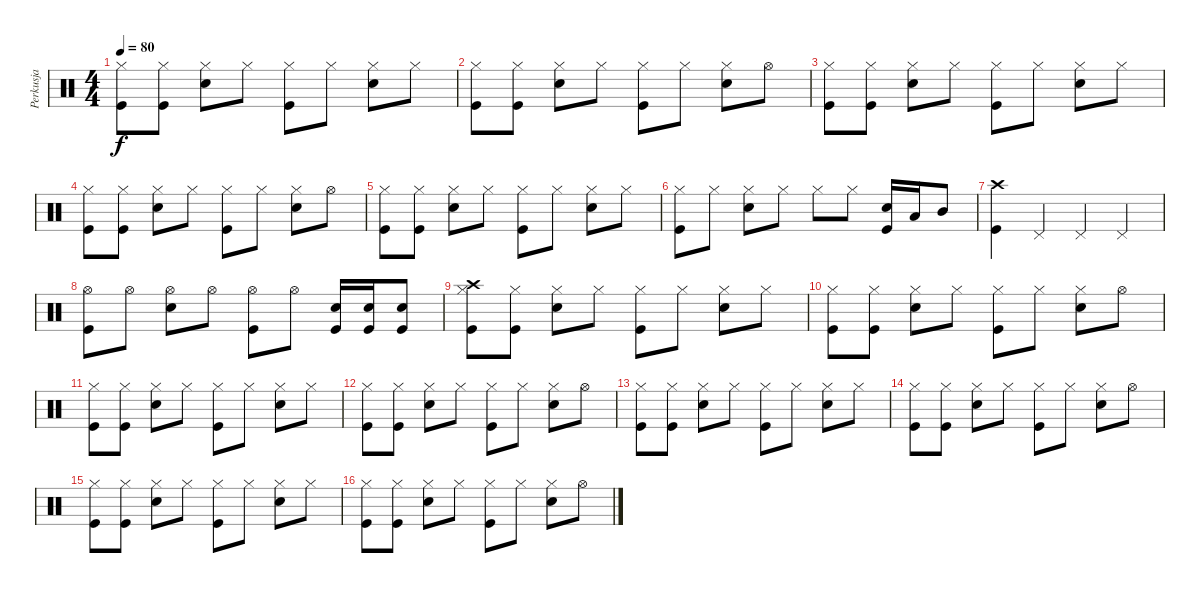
\track ("Perkusja" "Perkusja") {instrument percussion}
\staff {score}
\articulation defaults
\ts (4 4)
\tempo 80
\clef neutral
\ks c
("Hi-Hat (closed)" "Kick (hit)").8{dy f} ("Hi-Hat (closed)" "Kick (hit)").8 ("Hi-Hat (closed)" "Metronome (bell)").8 "Hi-Hat (closed)".8 ("Hi-Hat (closed)" "Kick (hit)").8 "Hi-Hat (closed)".8 ("Hi-Hat (closed)" "Metronome (bell)").8 "Hi-Hat (closed)".8 |
("Hi-Hat (closed)" "Kick (hit)").8 ("Hi-Hat (closed)" "Kick (hit)").8 ("Hi-Hat (closed)" "Metronome (bell)").8 "Hi-Hat (closed)".8 ("Hi-Hat (closed)" "Kick (hit)").8 "Hi-Hat (closed)".8 ("Hi-Hat (closed)" "Metronome (bell)").8 "Hi-Hat (open)".8 |
("Hi-Hat (closed)" "Kick (hit)").8 ("Hi-Hat (closed)" "Kick (hit)").8 ("Hi-Hat (closed)" "Metronome (bell)").8 "Hi-Hat (closed)".8 ("Hi-Hat (closed)" "Kick (hit)").8 "Hi-Hat (closed)".8 ("Hi-Hat (closed)" "Metronome (bell)").8 "Hi-Hat (closed)".8 |
("Hi-Hat (closed)" "Kick (hit)").8 ("Hi-Hat (closed)" "Kick (hit)").8 ("Hi-Hat (closed)" "Metronome (bell)").8 "Hi-Hat (closed)".8 ("Hi-Hat (closed)" "Kick (hit)").8 "Hi-Hat (closed)".8 ("Hi-Hat (closed)" "Metronome (bell)").8 "Hi-Hat (open)".8 |
("Hi-Hat (closed)" "Kick (hit)").8 ("Hi-Hat (closed)" "Kick (hit)").8 ("Hi-Hat (closed)" "Metronome (bell)").8 "Hi-Hat (closed)".8 ("Hi-Hat (closed)" "Kick (hit)").8 "Hi-Hat (closed)".8 ("Hi-Hat (closed)" "Metronome (bell)").8 "Hi-Hat (closed)".8 |
("Hi-Hat (closed)" "Kick (hit)").8 "Hi-Hat (closed)".8 ("Hi-Hat (closed)" "Metronome (bell)").8 "Hi-Hat (closed)".8 "Hi-Hat (closed)".8 "Hi-Hat (closed)".8 ("Metronome (bell)" "Kick (hit)").16 "Low Tom (hit)".16 "Mid Tom (hit)".8 |
("Crash high (hit)" "Kick (hit)").4 "Pedal Hi-Hat (hit)".4 "Pedal Hi-Hat (hit)".4 "Pedal Hi-Hat (hit)".4 |
("Hi-Hat (open)" "Kick (hit)").8 "Hi-Hat (open)".8 ("Hi-Hat (open)" "Metronome (bell)").8 "Hi-Hat (open)".8 ("Hi-Hat (open)" "Kick (hit)").8 "Hi-Hat (open)".8 ("Metronome (bell)" "Kick (hit)").16 ("Metronome (bell)" "Kick (hit)").16 ("Metronome (bell)" "Kick (hit)").8 |
("Hi-Hat (closed)" "Crash high (hit)" "Kick (hit)").8 ("Hi-Hat (closed)" "Kick (hit)").8 ("Hi-Hat (closed)" "Metronome (bell)").8 "Hi-Hat (closed)".8 ("Hi-Hat (closed)" "Kick (hit)").8 "Hi-Hat (closed)".8 ("Hi-Hat (closed)" "Metronome (bell)").8 "Hi-Hat (closed)".8 |
("Hi-Hat (closed)" "Kick (hit)").8 ("Hi-Hat (closed)" "Kick (hit)").8 ("Hi-Hat (closed)" "Metronome (bell)").8 "Hi-Hat (closed)".8 ("Hi-Hat (closed)" "Kick (hit)").8 "Hi-Hat (closed)".8 ("Hi-Hat (closed)" "Metronome (bell)").8 "Hi-Hat (open)".8 |
("Hi-Hat (closed)" "Kick (hit)").8 ("Hi-Hat (closed)" "Kick (hit)").8 ("Hi-Hat (closed)" "Metronome (bell)").8 "Hi-Hat (closed)".8 ("Hi-Hat (closed)" "Kick (hit)").8 "Hi-Hat (closed)".8 ("Hi-Hat (closed)" "Metronome (bell)").8 "Hi-Hat (closed)".8 |
("Hi-Hat (closed)" "Kick (hit)").8 ("Hi-Hat (closed)" "Kick (hit)").8 ("Hi-Hat (closed)" "Metronome (bell)").8 "Hi-Hat (closed)".8 ("Hi-Hat (closed)" "Kick (hit)").8 "Hi-Hat (closed)".8 ("Hi-Hat (closed)" "Metronome (bell)").8 "Hi-Hat (open)".8 |
("Hi-Hat (closed)" "Kick (hit)").8 ("Hi-Hat (closed)" "Kick (hit)").8 ("Hi-Hat (closed)" "Metronome (bell)").8 "Hi-Hat (closed)".8 ("Hi-Hat (closed)" "Kick (hit)").8 "Hi-Hat (closed)".8 ("Hi-Hat (closed)" "Metronome (bell)").8 "Hi-Hat (closed)".8 |
("Hi-Hat (closed)" "Kick (hit)").8 ("Hi-Hat (closed)" "Kick (hit)").8 ("Hi-Hat (closed)" "Metronome (bell)").8 "Hi-Hat (closed)".8 ("Hi-Hat (closed)" "Kick (hit)").8 "Hi-Hat (closed)".8 ("Hi-Hat (closed)" "Metronome (bell)").8 "Hi-Hat (open)".8 |
("Hi-Hat (closed)" "Kick (hit)").8 ("Hi-Hat (closed)" "Kick (hit)").8 ("Hi-Hat (closed)" "Metronome (bell)").8 "Hi-Hat (closed)".8 ("Hi-Hat (closed)" "Kick (hit)").8 "Hi-Hat (closed)".8 ("Hi-Hat (closed)" "Metronome (bell)").8 "Hi-Hat (closed)".8 |
("Hi-Hat (closed)" "Kick (hit)").8 ("Hi-Hat (closed)" "Kick (hit)").8 ("Hi-Hat (closed)" "Metronome (bell)").8 "Hi-Hat (closed)".8 ("Hi-Hat (closed)" "Kick (hit)").8 "Hi-Hat (closed)".8 ("Hi-Hat (closed)" "Metronome (bell)").8 "Hi-Hat (open)".8
